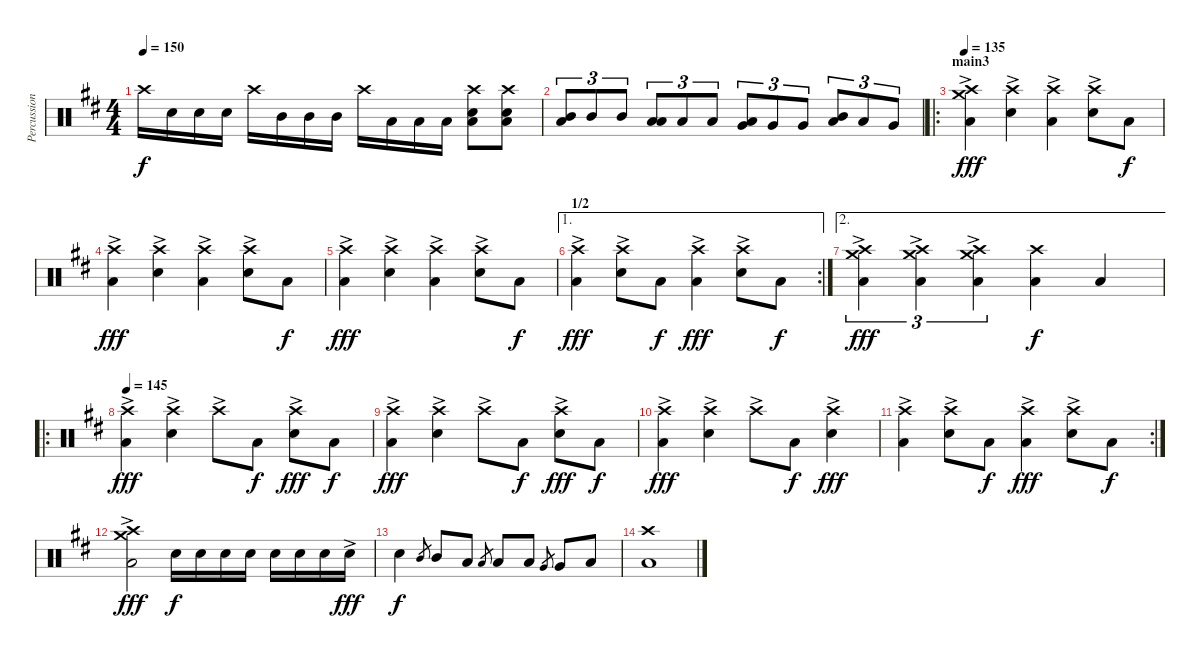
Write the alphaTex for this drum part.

\track ("Percussion" "Percussion") {instrument percussion}
\staff {score}
\articulation defaults
\ts (4 4)
\tempo 150
\clef neutral
\ks bminor "Crash high (hit)".16{dy f} "Electric Snare (hit)".16 "Electric Snare (hit)".16 "Electric Snare (hit)".16 "Crash high (hit)".16 "Mid Tom (hit)".16 "Mid Tom (hit)".16 "Mid Tom (hit)".16 "Crash high (hit)".16 "Low Tom (hit)".16 "Low Tom (hit)".16 "Low Tom (hit)".16
("Electric Snare (hit)" "Low Floor Tom (hit)" "Crash high (hit)").8 ("Electric Snare (hit)" "Low Floor Tom (hit)" "Crash high (hit)").8 |
("Low Floor Tom (hit)" "Mid Tom (hit)").8{tu (3 2)} "Mid Tom (hit)".8{tu (3 2)} "Mid Tom (hit)".8{tu (3 2)} ("Low Floor Tom (hit)" "Low Tom (hit)").8{tu (3 2)} "Low Tom (hit)".8{tu (3 2)} "Low Tom (hit)".8{tu (3 2)} ("Low Floor Tom (hit)" "Very Low Tom (hit)").8{tu (3 2)} "Very Low Tom (hit)".8{tu (3 2)} "Very Low Tom (hit)".8{tu (3 2)} ("Low Floor Tom (hit)" "Mid Tom (hit)").8{tu (3 2)} "Low Tom (hit)".8{tu (3 2)} "Very Low Tom (hit)".8{tu (3 2)} |
\ro
\section ("" "main3")
\tempo 135
("Crash high (hit)"{ac} "Crash medium (hit)"{ac} "Low Floor Tom (hit)").4{dy fff} ("Crash high (hit)"{ac} "Electric Snare (hit)").4 ("Crash high (hit)"{ac} "Low Floor Tom (hit)").4 ("Crash high (hit)"{ac} "Electric Snare (hit)").8 "Low Floor Tom (hit)".8{dy f} |
("Crash high (hit)"{ac} "Low Floor Tom (hit)").4{dy fff} ("Crash high (hit)"{ac} "Electric Snare (hit)").4 ("Crash high (hit)"{ac} "Low Floor Tom (hit)").4 ("Crash high (hit)"{ac} "Electric Snare (hit)").8 "Low Floor Tom (hit)".8{dy f} |
("Crash high (hit)"{ac} "Low Floor Tom (hit)").4{dy fff} ("Crash high (hit)"{ac} "Electric Snare (hit)").4 ("Crash high (hit)"{ac} "Low Floor Tom (hit)").4 ("Crash high (hit)"{ac} "Electric Snare (hit)").8 "Low Floor Tom (hit)".8{dy f} |
\ae 1
\rc 2
\section ("" "1/2")
("Crash high (hit)"{ac} "Low Floor Tom (hit)").4{dy fff} ("Crash high (hit)"{ac} "Electric Snare (hit)").8 "Low Floor Tom (hit)".8{dy f} ("Crash high (hit)"{ac} "Low Floor Tom (hit)").4{dy fff} ("Crash high (hit)"{ac} "Electric Snare (hit)").8 "Low Floor Tom (hit)".8{dy f} |
\ae 2
("Low Floor Tom (hit)"{ac} "Crash medium (hit)"{ac} "Crash high (hit)"{ac}).4{tu (3 2) dy fff} ("Low Floor Tom (hit)"{ac} "Crash medium (hit)"{ac} "Crash high (hit)"{ac}).4{tu (3 2)} ("Low Floor Tom (hit)"{ac} "Crash medium (hit)"{ac} "Crash high (hit)"{ac}).4{tu (3 2)} ("Crash high (hit)" "Low Floor Tom (hit)").4{dy f} "Low Floor Tom (hit)".4 |
\ro
\tempo 145
("Crash high (hit)"{ac} "Low Floor Tom (hit)").4{dy fff} ("Crash high (hit)"{ac} "Electric Snare (hit)").4 "Crash high (hit)"{ac}.8 "Low Floor Tom (hit)".8{dy f} ("Crash high (hit)"{ac} "Electric Snare (hit)").8{dy fff} "Low Floor Tom (hit)".8{dy f} |
("Crash high (hit)"{ac} "Low Floor Tom (hit)").4{dy fff} ("Crash high (hit)"{ac} "Electric Snare (hit)").4 "Crash high (hit)"{ac}.8 "Low Floor Tom (hit)".8{dy f} ("Crash high (hit)"{ac} "Electric Snare (hit)").8{dy fff} "Low Floor Tom (hit)".8{dy f} |
("Crash high (hit)"{ac} "Low Floor Tom (hit)").4{dy fff} ("Crash high (hit)"{ac} "Electric Snare (hit)").4 "Crash high (hit)"{ac}.8 "Low Floor Tom (hit)".8{dy f} ("Crash high (hit)"{ac} "Electric Snare (hit)").4{dy fff} |
\rc 2
("Crash high (hit)"{ac} "Low Floor Tom (hit)").4 ("Crash high (hit)"{ac} "Electric Snare (hit)").8 "Low Floor Tom (hit)".8{dy f} ("Crash high (hit)"{ac} "Low Floor Tom (hit)").4{dy fff} ("Crash high (hit)"{ac} "Electric Snare (hit)").8 "Low Floor Tom (hit)".8{dy f} |
("Crash medium (hit)"{ac} "Low Floor Tom (hit)"{ac} "Crash high (hit)"{ac}).2{dy fff} "Electric Snare (hit)".16{dy f} "Electric Snare (hit)".16 "Electric Snare (hit)".16 "Electric Snare (hit)".16 "Electric Snare (hit)".16 "Electric Snare (hit)".16 "Electric Snare (hit)".16 "Electric Snare (hit)"{ac}.16{dy fff} |
"Electric Snare (hit)".4{dy f} "Mid Tom (hit)".8{gr} "Mid Tom (hit)".8 "Low Floor Tom (hit)".8 "Low Tom (hit)".8{gr} "Low Tom (hit)".8 "Low Floor Tom (hit)".8 "Very Low Tom (hit)".8{gr} "Very Low Tom (hit)".8 "Low Floor Tom (hit)".8 |
("Crash high (hit)" "Low Floor Tom (hit)").1
